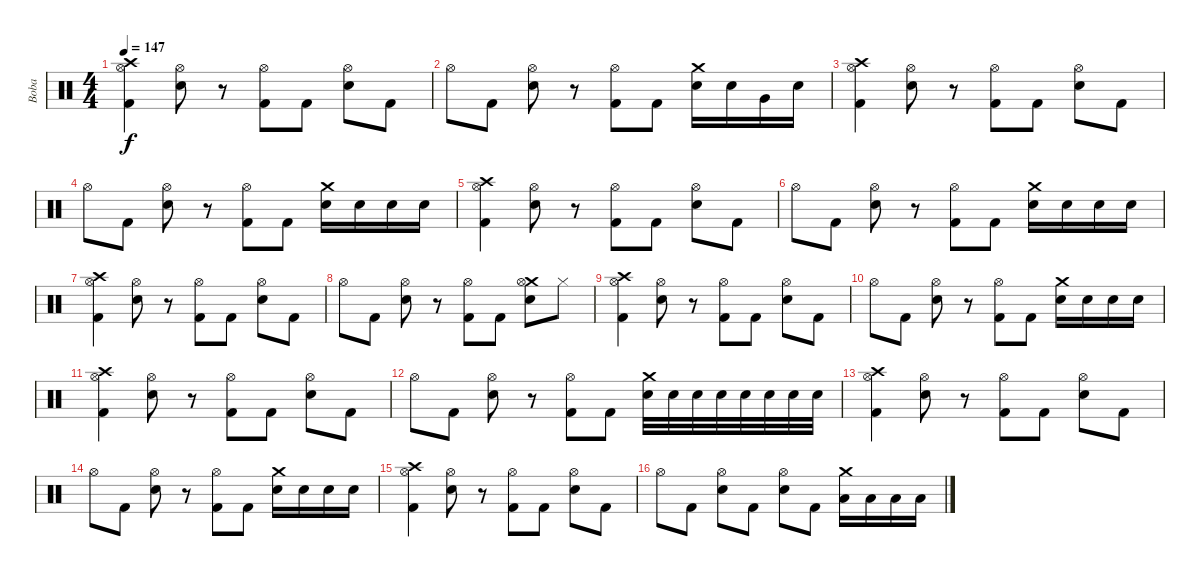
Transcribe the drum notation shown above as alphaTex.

\track ("Boba" "Boba") {instrument percussion}
\staff {score}
\articulation defaults
\ts (4 4)
\tempo 147
\clef neutral
\ks c
("Crash high (hit)" "Hi-Hat (open)" "Kick (hit) 2").4{dy f} ("Hi-Hat (open)" "Electric Snare (hit)").8 r.8 ("Hi-Hat (open)" "Kick (hit) 2").8 "Kick (hit) 2".8 ("Hi-Hat (open)" "Electric Snare (hit)").8 "Kick (hit) 2".8 |
"Hi-Hat (open)".8 "Kick (hit) 2".8 ("Hi-Hat (open)" "Electric Snare (hit)").8 r.8 ("Hi-Hat (open)" "Kick (hit) 2").8 "Kick (hit) 2".8 ("Crash medium (hit)" "Electric Snare (hit)").16 "Electric Snare (hit)".16 "Very Low Tom (hit)".16 "Electric Snare (hit)".16 |
("Crash high (hit)" "Hi-Hat (open)" "Kick (hit) 2").4 ("Hi-Hat (open)" "Electric Snare (hit)").8 r.8 ("Hi-Hat (open)" "Kick (hit) 2").8 "Kick (hit) 2".8 ("Hi-Hat (open)" "Electric Snare (hit)").8 "Kick (hit) 2".8 |
"Hi-Hat (open)".8 "Kick (hit) 2".8 ("Hi-Hat (open)" "Electric Snare (hit)").8 r.8 ("Hi-Hat (open)" "Kick (hit) 2").8 "Kick (hit) 2".8 ("Crash medium (hit)" "Electric Snare (hit)").16 "Electric Snare (hit)".16 "Electric Snare (hit)".16 "Electric Snare (hit)".16 |
("Crash high (hit)" "Hi-Hat (open)" "Kick (hit) 2").4 ("Hi-Hat (open)" "Electric Snare (hit)").8 r.8 ("Hi-Hat (open)" "Kick (hit) 2").8 "Kick (hit) 2".8 ("Hi-Hat (open)" "Electric Snare (hit)").8 "Kick (hit) 2".8 |
"Hi-Hat (open)".8 "Kick (hit) 2".8 ("Hi-Hat (open)" "Electric Snare (hit)").8 r.8 ("Hi-Hat (open)" "Kick (hit) 2").8 "Kick (hit) 2".8 ("Crash medium (hit)" "Electric Snare (hit)").16 "Electric Snare (hit)".16 "Electric Snare (hit)".16 "Electric Snare (hit)".16 |
("Crash high (hit)" "Hi-Hat (open)" "Kick (hit) 2").4 ("Hi-Hat (open)" "Electric Snare (hit)").8 r.8 ("Hi-Hat (open)" "Kick (hit) 2").8 "Kick (hit) 2".8 ("Hi-Hat (open)" "Electric Snare (hit)").8 "Kick (hit) 2".8 |
"Hi-Hat (open)".8 "Kick (hit) 2".8 ("Hi-Hat (open)" "Electric Snare (hit)").8 r.8 ("Hi-Hat (open)" "Kick (hit) 2").8 "Kick (hit) 2".8 ("Crash medium (hit)" "Hi-Hat (open)" "Electric Snare (hit)").8 "Hi-Hat (closed)".8 |
("Crash high (hit)" "Hi-Hat (open)" "Kick (hit) 2").4 ("Hi-Hat (open)" "Electric Snare (hit)").8 r.8 ("Hi-Hat (open)" "Kick (hit) 2").8 "Kick (hit) 2".8 ("Hi-Hat (open)" "Electric Snare (hit)").8 "Kick (hit) 2".8 |
"Hi-Hat (open)".8 "Kick (hit) 2".8 ("Hi-Hat (open)" "Electric Snare (hit)").8 r.8 ("Hi-Hat (open)" "Kick (hit) 2").8 "Kick (hit) 2".8 ("Crash medium (hit)" "Electric Snare (hit)").16 "Electric Snare (hit)".16 "Electric Snare (hit)".16 "Electric Snare (hit)".16 |
("Crash high (hit)" "Hi-Hat (open)" "Kick (hit) 2").4 ("Hi-Hat (open)" "Electric Snare (hit)").8 r.8 ("Hi-Hat (open)" "Kick (hit) 2").8 "Kick (hit) 2".8 ("Hi-Hat (open)" "Electric Snare (hit)").8 "Kick (hit) 2".8 |
"Hi-Hat (open)".8 "Kick (hit) 2".8 ("Hi-Hat (open)" "Electric Snare (hit)").8 r.8 ("Hi-Hat (open)" "Kick (hit) 2").8 "Kick (hit) 2".8 ("Crash medium (hit)" "Electric Snare (hit)").32 "Electric Snare (hit)".32 "Electric Snare (hit)".32 "Electric Snare (hit)".32 "Electric Snare (hit)".32 "Electric Snare (hit)".32 "Electric Snare (hit)".32 "Electric Snare (hit)".32 |
("Crash high (hit)" "Hi-Hat (open)" "Kick (hit) 2").4 ("Hi-Hat (open)" "Electric Snare (hit)").8 r.8 ("Hi-Hat (open)" "Kick (hit) 2").8 "Kick (hit) 2".8 ("Hi-Hat (open)" "Electric Snare (hit)").8 "Kick (hit) 2".8 |
"Hi-Hat (open)".8 "Kick (hit) 2".8 ("Hi-Hat (open)" "Electric Snare (hit)").8 r.8 ("Hi-Hat (open)" "Kick (hit) 2").8 "Kick (hit) 2".8 ("Crash medium (hit)" "Electric Snare (hit)").16 "Electric Snare (hit)".16 "Electric Snare (hit)".16 "Electric Snare (hit)".16 |
("Crash high (hit)" "Hi-Hat (open)" "Kick (hit) 2").4 ("Hi-Hat (open)" "Electric Snare (hit)").8 r.8 ("Hi-Hat (open)" "Kick (hit) 2").8 "Kick (hit) 2".8 ("Hi-Hat (open)" "Electric Snare (hit)").8 "Kick (hit) 2".8 |
"Hi-Hat (open)".8 "Kick (hit) 2".8 ("Hi-Hat (open)" "Electric Snare (hit)").8 "Kick (hit) 2".8 ("Hi-Hat (open)" "Electric Snare (hit)").8 "Kick (hit) 2".8 ("Crash medium (hit)" "Low Floor Tom (hit)").16 "Low Floor Tom (hit)".16 "Low Floor Tom (hit)".16 "Low Floor Tom (hit)".16
